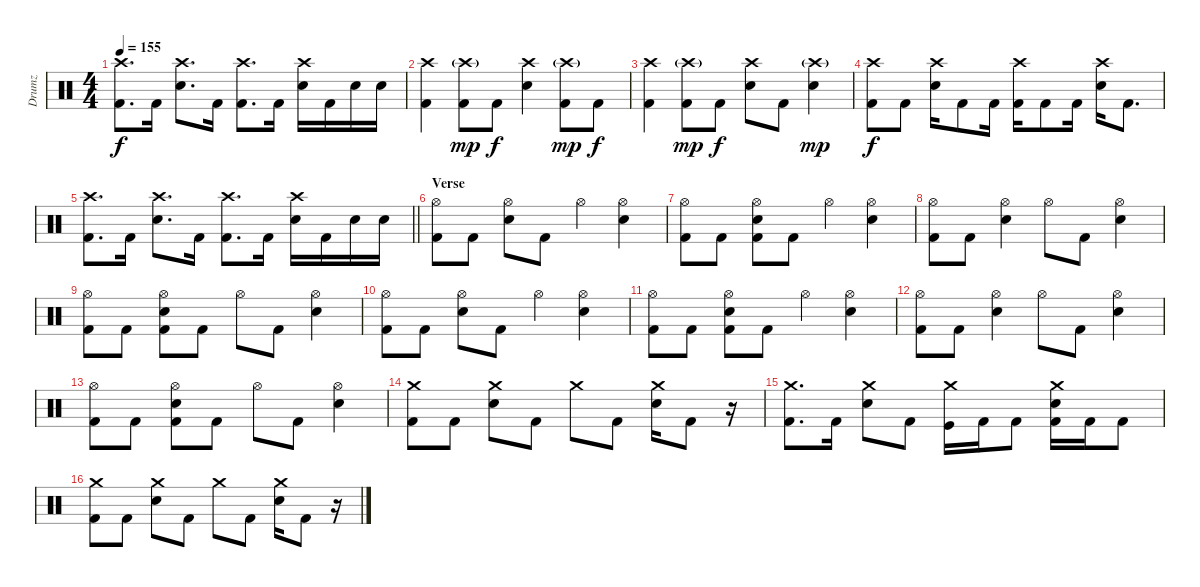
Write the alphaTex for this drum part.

\track ("Drumz" "Drumz") {instrument percussion}
\staff {score}
\articulation defaults
\ts (4 4)
\tempo 155
\clef neutral
\ks c
("Kick (hit) 2" "Crash high (hit)").8{d dy f} "Kick (hit) 2".16 ("Crash high (hit)" "Electric Snare (hit)").8{d} "Kick (hit) 2".16 ("Kick (hit) 2" "Crash high (hit)").8{d} "Kick (hit) 2".16 ("Crash high (hit)" "Electric Snare (hit)").16 "Kick (hit) 2".16 "Electric Snare (hit)".16 "Electric Snare (hit)".16 |
("Kick (hit) 2" "Crash high (hit)").4 ("Kick (hit) 2" "Crash high (hit)"{g}).8{dy mp} "Kick (hit) 2".8{dy f} ("Crash high (hit)" "Electric Snare (hit)").4 ("Kick (hit) 2" "Crash high (hit)"{g}).8{dy mp} "Kick (hit) 2".8{dy f} |
("Kick (hit) 2" "Crash high (hit)").4 ("Kick (hit) 2" "Crash high (hit)"{g}).8{dy mp} "Kick (hit) 2".8{dy f} ("Crash high (hit)" "Electric Snare (hit)").8 "Kick (hit) 2".8 ("Electric Snare (hit)" "Crash high (hit)"{g}).4{dy mp} |
("Kick (hit) 2" "Crash high (hit)").8{dy f} "Kick (hit) 2".8 ("Crash high (hit)" "Electric Snare (hit)").16 "Kick (hit) 2".8 "Kick (hit) 2".16 ("Kick (hit) 2" "Crash high (hit)").16 "Kick (hit) 2".8 "Kick (hit) 2".16 ("Crash high (hit)" "Electric Snare (hit)").16 "Kick (hit) 2".8{d} |
\barLineRight lightlight
("Kick (hit) 2" "Crash high (hit)").8{d} "Kick (hit) 2".16 ("Crash high (hit)" "Electric Snare (hit)").8{d} "Kick (hit) 2".16 ("Kick (hit) 2" "Crash high (hit)").8{d} "Kick (hit) 2".16 ("Crash high (hit)" "Electric Snare (hit)").16 "Kick (hit) 2".16 "Electric Snare (hit)".16 "Electric Snare (hit)".16 |
\section ("" "Verse")
("Kick (hit) 2" "Hi-Hat (open)").8 "Kick (hit) 2".8 ("Hi-Hat (open)" "Electric Snare (hit)").8 "Kick (hit) 2".8 "Hi-Hat (open)".4 ("Hi-Hat (open)" "Electric Snare (hit)").4 |
("Kick (hit) 2" "Hi-Hat (open)").8 "Kick (hit) 2".8 ("Hi-Hat (open)" "Kick (hit) 2" "Electric Snare (hit)").8 "Kick (hit) 2".8 "Hi-Hat (open)".4 ("Hi-Hat (open)" "Electric Snare (hit)").4 |
("Hi-Hat (open)" "Kick (hit) 2").8 "Kick (hit) 2".8 ("Hi-Hat (open)" "Electric Snare (hit)").4 "Hi-Hat (open)".8 "Kick (hit) 2".8 ("Hi-Hat (open)" "Electric Snare (hit)").4 |
("Kick (hit) 2" "Hi-Hat (open)").8 "Kick (hit) 2".8 ("Hi-Hat (open)" "Kick (hit) 2" "Electric Snare (hit)").8 "Kick (hit) 2".8 "Hi-Hat (open)".8 "Kick (hit) 2".8 ("Hi-Hat (open)" "Electric Snare (hit)").4 |
("Kick (hit) 2" "Hi-Hat (open)").8 "Kick (hit) 2".8 ("Hi-Hat (open)" "Electric Snare (hit)").8 "Kick (hit) 2".8 "Hi-Hat (open)".4 ("Hi-Hat (open)" "Electric Snare (hit)").4 |
("Kick (hit) 2" "Hi-Hat (open)").8 "Kick (hit) 2".8 ("Hi-Hat (open)" "Kick (hit) 2" "Electric Snare (hit)").8 "Kick (hit) 2".8 "Hi-Hat (open)".4 ("Hi-Hat (open)" "Electric Snare (hit)").4 |
("Hi-Hat (open)" "Kick (hit) 2").8 "Kick (hit) 2".8 ("Hi-Hat (open)" "Electric Snare (hit)").4 "Hi-Hat (open)".8 "Kick (hit) 2".8 ("Hi-Hat (open)" "Electric Snare (hit)").4 |
("Kick (hit) 2" "Hi-Hat (open)").8 "Kick (hit) 2".8 ("Hi-Hat (open)" "Kick (hit) 2" "Electric Snare (hit)").8 "Kick (hit) 2".8 "Hi-Hat (open)".8 "Kick (hit) 2".8 ("Hi-Hat (open)" "Electric Snare (hit)").4 |
("Crash medium (hit)" "Kick (hit) 2").8 "Kick (hit) 2".8 ("Crash medium (hit)" "Electric Snare (hit)").8 "Kick (hit) 2".8 "Crash medium (hit)".8 "Kick (hit) 2".8 ("Crash medium (hit)" "Electric Snare (hit)").16 "Kick (hit) 2".8 r.16 |
("Crash medium (hit)" "Kick (hit) 2").8{d} "Kick (hit) 2".16 ("Crash medium (hit)" "Electric Snare (hit)").8 "Kick (hit) 2".8 ("Crash medium (hit)" "Kick (hit)").16 "Kick (hit) 2".16 "Kick (hit) 2".8 ("Kick (hit) 2" "Crash medium (hit)" "Electric Snare (hit)").16 "Kick (hit) 2".16 "Kick (hit) 2".8 |
("Crash medium (hit)" "Kick (hit) 2").8 "Kick (hit) 2".8 ("Crash medium (hit)" "Electric Snare (hit)").8 "Kick (hit) 2".8 "Crash medium (hit)".8 "Kick (hit) 2".8 ("Crash medium (hit)" "Electric Snare (hit)").16 "Kick (hit) 2".8 r.16
